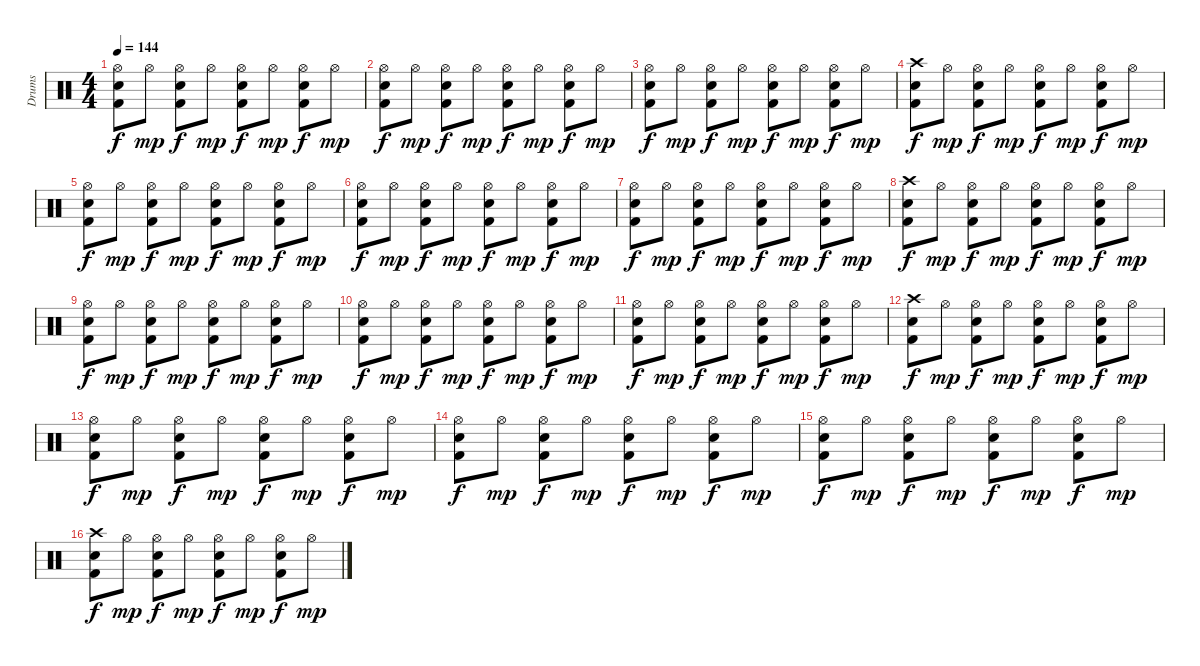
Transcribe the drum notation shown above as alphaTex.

\track ("Drums" "Drums") {instrument percussion}
\staff {score}
\articulation defaults
\ts (4 4)
\tempo 144
\clef neutral
\ks c
("Hi-Hat (open)" "Snare (hit) 2" "Kick (hit) 2").8{dy f} "Hi-Hat (open)".8{dy mp} ("Hi-Hat (open)" "Snare (hit) 2" "Kick (hit) 2").8{dy f} "Hi-Hat (open)".8{dy mp} ("Hi-Hat (open)" "Snare (hit) 2" "Kick (hit) 2").8{dy f} "Hi-Hat (open)".8{dy mp} ("Hi-Hat (open)" "Snare (hit) 2" "Kick (hit) 2").8{dy f} "Hi-Hat (open)".8{dy mp} |
("Hi-Hat (open)" "Snare (hit) 2" "Kick (hit) 2").8{dy f} "Hi-Hat (open)".8{dy mp} ("Hi-Hat (open)" "Snare (hit) 2" "Kick (hit) 2").8{dy f} "Hi-Hat (open)".8{dy mp} ("Hi-Hat (open)" "Snare (hit) 2" "Kick (hit) 2").8{dy f} "Hi-Hat (open)".8{dy mp} ("Hi-Hat (open)" "Snare (hit) 2" "Kick (hit) 2").8{dy f} "Hi-Hat (open)".8{dy mp} |
("Hi-Hat (open)" "Snare (hit) 2" "Kick (hit) 2").8{dy f} "Hi-Hat (open)".8{dy mp} ("Hi-Hat (open)" "Snare (hit) 2" "Kick (hit) 2").8{dy f} "Hi-Hat (open)".8{dy mp} ("Hi-Hat (open)" "Snare (hit) 2" "Kick (hit) 2").8{dy f} "Hi-Hat (open)".8{dy mp} ("Hi-Hat (open)" "Snare (hit) 2" "Kick (hit) 2").8{dy f} "Hi-Hat (open)".8{dy mp} |
("Crash high (hit)" "Snare (hit) 2" "Kick (hit) 2").8{dy f} "Hi-Hat (open)".8{dy mp} ("Hi-Hat (open)" "Snare (hit) 2" "Kick (hit) 2").8{dy f} "Hi-Hat (open)".8{dy mp} ("Hi-Hat (open)" "Snare (hit) 2" "Kick (hit) 2").8{dy f} "Hi-Hat (open)".8{dy mp} ("Hi-Hat (open)" "Snare (hit) 2" "Kick (hit) 2").8{dy f} "Hi-Hat (open)".8{dy mp} |
("Hi-Hat (open)" "Snare (hit) 2" "Kick (hit) 2").8{dy f} "Hi-Hat (open)".8{dy mp} ("Hi-Hat (open)" "Snare (hit) 2" "Kick (hit) 2").8{dy f} "Hi-Hat (open)".8{dy mp} ("Hi-Hat (open)" "Snare (hit) 2" "Kick (hit) 2").8{dy f} "Hi-Hat (open)".8{dy mp} ("Hi-Hat (open)" "Snare (hit) 2" "Kick (hit) 2").8{dy f} "Hi-Hat (open)".8{dy mp} |
("Hi-Hat (open)" "Snare (hit) 2" "Kick (hit) 2").8{dy f} "Hi-Hat (open)".8{dy mp} ("Hi-Hat (open)" "Snare (hit) 2" "Kick (hit) 2").8{dy f} "Hi-Hat (open)".8{dy mp} ("Hi-Hat (open)" "Snare (hit) 2" "Kick (hit) 2").8{dy f} "Hi-Hat (open)".8{dy mp} ("Hi-Hat (open)" "Snare (hit) 2" "Kick (hit) 2").8{dy f} "Hi-Hat (open)".8{dy mp} |
("Hi-Hat (open)" "Snare (hit) 2" "Kick (hit) 2").8{dy f} "Hi-Hat (open)".8{dy mp} ("Hi-Hat (open)" "Snare (hit) 2" "Kick (hit) 2").8{dy f} "Hi-Hat (open)".8{dy mp} ("Hi-Hat (open)" "Snare (hit) 2" "Kick (hit) 2").8{dy f} "Hi-Hat (open)".8{dy mp} ("Hi-Hat (open)" "Snare (hit) 2" "Kick (hit) 2").8{dy f} "Hi-Hat (open)".8{dy mp} |
("Crash high (hit)" "Snare (hit) 2" "Kick (hit) 2").8{dy f} "Hi-Hat (open)".8{dy mp} ("Hi-Hat (open)" "Snare (hit) 2" "Kick (hit) 2").8{dy f} "Hi-Hat (open)".8{dy mp} ("Hi-Hat (open)" "Snare (hit) 2" "Kick (hit) 2").8{dy f} "Hi-Hat (open)".8{dy mp} ("Hi-Hat (open)" "Snare (hit) 2" "Kick (hit) 2").8{dy f} "Hi-Hat (open)".8{dy mp} |
("Hi-Hat (open)" "Snare (hit) 2" "Kick (hit) 2").8{dy f} "Hi-Hat (open)".8{dy mp} ("Hi-Hat (open)" "Snare (hit) 2" "Kick (hit) 2").8{dy f} "Hi-Hat (open)".8{dy mp} ("Hi-Hat (open)" "Snare (hit) 2" "Kick (hit) 2").8{dy f} "Hi-Hat (open)".8{dy mp} ("Hi-Hat (open)" "Snare (hit) 2" "Kick (hit) 2").8{dy f} "Hi-Hat (open)".8{dy mp} |
("Hi-Hat (open)" "Snare (hit) 2" "Kick (hit) 2").8{dy f} "Hi-Hat (open)".8{dy mp} ("Hi-Hat (open)" "Snare (hit) 2" "Kick (hit) 2").8{dy f} "Hi-Hat (open)".8{dy mp} ("Hi-Hat (open)" "Snare (hit) 2" "Kick (hit) 2").8{dy f} "Hi-Hat (open)".8{dy mp} ("Hi-Hat (open)" "Snare (hit) 2" "Kick (hit) 2").8{dy f} "Hi-Hat (open)".8{dy mp} |
("Hi-Hat (open)" "Snare (hit) 2" "Kick (hit) 2").8{dy f} "Hi-Hat (open)".8{dy mp} ("Hi-Hat (open)" "Snare (hit) 2" "Kick (hit) 2").8{dy f} "Hi-Hat (open)".8{dy mp} ("Hi-Hat (open)" "Snare (hit) 2" "Kick (hit) 2").8{dy f} "Hi-Hat (open)".8{dy mp} ("Hi-Hat (open)" "Snare (hit) 2" "Kick (hit) 2").8{dy f} "Hi-Hat (open)".8{dy mp} |
("Crash high (hit)" "Snare (hit) 2" "Kick (hit) 2").8{dy f volume 10} "Hi-Hat (open)".8{dy mp} ("Hi-Hat (open)" "Snare (hit) 2" "Kick (hit) 2").8{dy f} "Hi-Hat (open)".8{dy mp} ("Hi-Hat (open)" "Snare (hit) 2" "Kick (hit) 2").8{dy f} "Hi-Hat (open)".8{dy mp} ("Hi-Hat (open)" "Snare (hit) 2" "Kick (hit) 2").8{dy f} "Hi-Hat (open)".8{dy mp} |
("Hi-Hat (open)" "Snare (hit) 2" "Kick (hit) 2").8{dy f} "Hi-Hat (open)".8{dy mp} ("Hi-Hat (open)" "Snare (hit) 2" "Kick (hit) 2").8{dy f} "Hi-Hat (open)".8{dy mp} ("Hi-Hat (open)" "Snare (hit) 2" "Kick (hit) 2").8{dy f} "Hi-Hat (open)".8{dy mp} ("Hi-Hat (open)" "Snare (hit) 2" "Kick (hit) 2").8{dy f} "Hi-Hat (open)".8{dy mp} |
("Hi-Hat (open)" "Snare (hit) 2" "Kick (hit) 2").8{dy f} "Hi-Hat (open)".8{dy mp} ("Hi-Hat (open)" "Snare (hit) 2" "Kick (hit) 2").8{dy f} "Hi-Hat (open)".8{dy mp} ("Hi-Hat (open)" "Snare (hit) 2" "Kick (hit) 2").8{dy f} "Hi-Hat (open)".8{dy mp} ("Hi-Hat (open)" "Snare (hit) 2" "Kick (hit) 2").8{dy f} "Hi-Hat (open)".8{dy mp} |
("Hi-Hat (open)" "Snare (hit) 2" "Kick (hit) 2").8{dy f} "Hi-Hat (open)".8{dy mp} ("Hi-Hat (open)" "Snare (hit) 2" "Kick (hit) 2").8{dy f} "Hi-Hat (open)".8{dy mp} ("Hi-Hat (open)" "Snare (hit) 2" "Kick (hit) 2").8{dy f} "Hi-Hat (open)".8{dy mp} ("Hi-Hat (open)" "Snare (hit) 2" "Kick (hit) 2").8{dy f} "Hi-Hat (open)".8{dy mp} |
("Crash high (hit)" "Snare (hit) 2" "Kick (hit) 2").8{dy f volume 5} "Hi-Hat (open)".8{dy mp} ("Hi-Hat (open)" "Snare (hit) 2" "Kick (hit) 2").8{dy f} "Hi-Hat (open)".8{dy mp} ("Hi-Hat (open)" "Snare (hit) 2" "Kick (hit) 2").8{dy f} "Hi-Hat (open)".8{dy mp} ("Hi-Hat (open)" "Snare (hit) 2" "Kick (hit) 2").8{dy f} "Hi-Hat (open)".8{dy mp}
